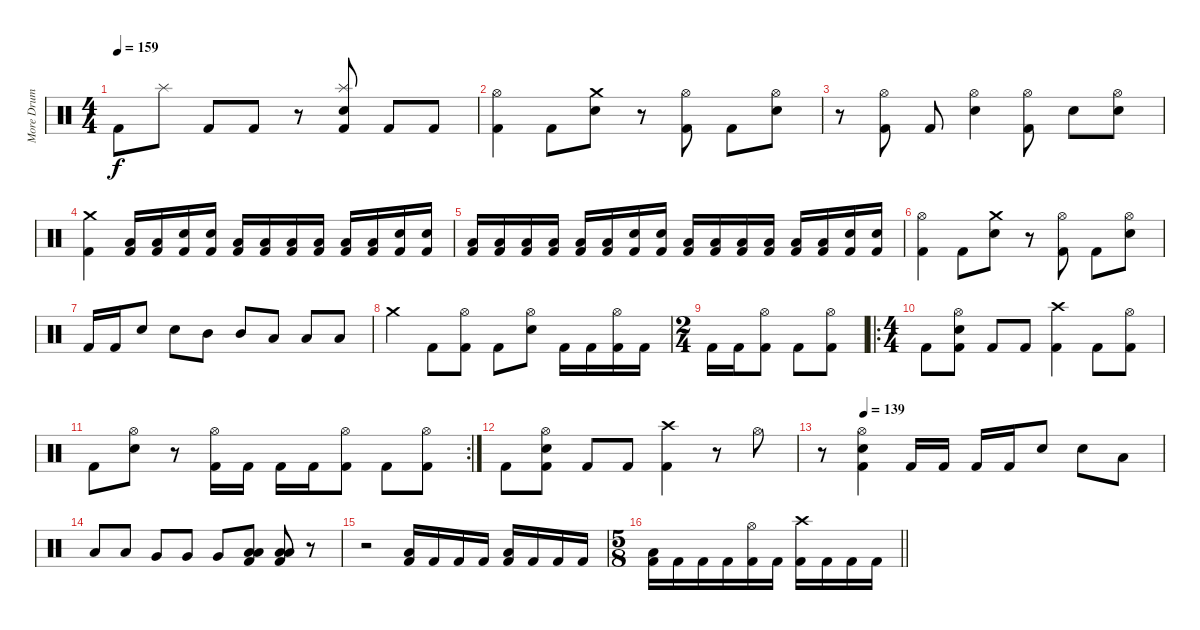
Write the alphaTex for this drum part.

\track ("More Drum Sound" "More Drum ") {instrument percussion}
\staff {score}
\articulation defaults
\ts (4 4)
\tempo 159
\clef neutral
\ks c "Kick (hit) 2".8{dy f} "Splash (hit)".8 "Kick (hit) 2".8 "Kick (hit) 2".8
r.8 ("Splash (hit)" "Snare (hit) 2" "Kick (hit) 2").8 "Kick (hit) 2".8 "Kick (hit) 2".8 |
("Hi-Hat (open)" "Kick (hit) 2").4 "Kick (hit) 2".8 ("Crash medium (hit)" "Snare (hit) 2").8 r.8 ("Hi-Hat (open)" "Kick (hit) 2").8 "Kick (hit) 2".8 ("Hi-Hat (open)" "Snare (hit) 2").8 |
r.8 ("Hi-Hat (open)" "Kick (hit) 2").8 "Kick (hit) 2".8 ("Hi-Hat (open)" "Snare (hit) 2").4 ("Hi-Hat (open)" "Kick (hit) 2").8 "Snare (hit) 2".8 ("Hi-Hat (open)" "Snare (hit) 2").8 |
("Crash medium (hit)" "Kick (hit) 2").4 ("Low Tom (hit)" "Kick (hit) 2").16 ("Low Tom (hit)" "Kick (hit) 2").16 ("Snare (hit) 2" "Kick (hit) 2").16 ("Snare (hit) 2" "Kick (hit) 2").16 ("Low Tom (hit)" "Kick (hit) 2").16 ("Low Tom (hit)" "Kick (hit) 2").16 ("Low Tom (hit)" "Kick (hit) 2").16 ("Low Tom (hit)" "Kick (hit) 2").16 ("Low Tom (hit)" "Kick (hit) 2").16 ("Low Tom (hit)" "Kick (hit) 2").16 ("Snare (hit) 2" "Kick (hit) 2").16 ("Snare (hit) 2" "Kick (hit) 2").16 |
("Low Tom (hit)" "Kick (hit) 2").16 ("Low Tom (hit)" "Kick (hit) 2").16 ("Low Tom (hit)" "Kick (hit) 2").16 ("Low Tom (hit)" "Kick (hit) 2").16 ("Low Tom (hit)" "Kick (hit) 2").16 ("Low Tom (hit)" "Kick (hit) 2").16 ("Snare (hit) 2" "Kick (hit) 2").16 ("Snare (hit) 2" "Kick (hit) 2").16 ("Low Tom (hit)" "Kick (hit) 2").16 ("Low Tom (hit)" "Kick (hit) 2").16 ("Low Tom (hit)" "Kick (hit) 2").16 ("Low Tom (hit)" "Kick (hit) 2").16 ("Low Tom (hit)" "Kick (hit) 2").16 ("Low Tom (hit)" "Kick (hit) 2").16 ("Snare (hit) 2" "Kick (hit) 2").16 ("Snare (hit) 2" "Kick (hit) 2").16 |
("Hi-Hat (open)" "Kick (hit) 2").4 "Kick (hit) 2".8 ("Crash medium (hit)" "Snare (hit) 2").8 r.8 ("Hi-Hat (open)" "Kick (hit) 2").8 "Kick (hit) 2".8 ("Hi-Hat (open)" "Snare (hit) 2").8 |
"Kick (hit) 2".16 "Kick (hit) 2".16 "Snare (hit) 2".8 "Snare (hit) 2".8 "Mid Tom (hit)".8 "Mid Tom (hit)".8 "Low Tom (hit)".8 "Low Tom (hit)".8 "Low Floor Tom (hit)".8 |
"Crash medium (hit)".4 "Kick (hit) 2".8 ("Hi-Hat (open)" "Kick (hit) 2").8 "Kick (hit) 2".8 ("Hi-Hat (open)" "Snare (hit) 2").8 "Kick (hit) 2".16 "Kick (hit) 2".16 ("Hi-Hat (open)" "Kick (hit) 2").16 "Kick (hit) 2".16 |
\ts (2 4)
"Kick (hit) 2".16 "Kick (hit) 2".16 ("Hi-Hat (open)" "Kick (hit) 2").8 "Kick (hit) 2".8 ("Hi-Hat (open)" "Kick (hit) 2").8 |
\ro
\ts (4 4)
"Kick (hit) 2".8 ("Hi-Hat (open)" "Snare (hit) 2" "Kick (hit) 2").8 "Kick (hit) 2".8 "Kick (hit) 2".8 ("Crash high (hit)" "Kick (hit) 2").4 "Kick (hit) 2".8 ("Hi-Hat (open)" "Kick (hit) 2").8 |
\rc 2 "Kick (hit) 2".8
("Hi-Hat (open)" "Snare (hit) 2").8 r.8 ("Hi-Hat (open)" "Kick (hit) 2").16 "Kick (hit) 2".16 "Kick (hit) 2".16 "Kick (hit) 2".16 ("Hi-Hat (open)" "Kick (hit) 2").8 "Kick (hit) 2".8 ("Hi-Hat (open)" "Kick (hit) 2").8 |
"Kick (hit) 2".8 ("Hi-Hat (open)" "Snare (hit) 2" "Kick (hit) 2").8 "Kick (hit) 2".8 "Kick (hit) 2".8 ("Crash high (hit)" "Kick (hit) 2").4 r.8 "Hi-Hat (open)".8 |
\tempo (139 0.125)
r.8 ("Hi-Hat (open)" "Snare (hit) 2" "Kick (hit) 2").4 "Kick (hit) 2".16 "Kick (hit) 2".16 "Kick (hit) 2".16 "Kick (hit) 2".16 "Snare (hit) 2".8 "Snare (hit) 2".8 "Low Tom (hit)".8 |
"Low Tom (hit)".8 "Low Tom (hit)".8 "Very Low Tom (hit)".8 "Very Low Tom (hit)".8 "Very Low Tom (hit)".8 ("Low Floor Tom (hit)" "Low Floor Tom (hit)" "Kick (hit) 2").8 ("Low Floor Tom (hit)" "Low Floor Tom (hit)" "Kick (hit) 2").8 r.8 |
r.2 ("Low Floor Tom (hit)" "Kick (hit) 2").16 "Kick (hit) 2".16 "Kick (hit) 2".16 "Kick (hit) 2".16 ("Low Floor Tom (hit)" "Kick (hit) 2").16 "Kick (hit) 2".16 "Kick (hit) 2".16 "Kick (hit) 2".16 |
\ts (5 8)
\barLineRight lightlight
("Low Floor Tom (hit)" "Kick (hit) 2").16 "Kick (hit) 2".16 "Kick (hit) 2".16 "Kick (hit) 2".16 ("Hi-Hat (open)" "Kick (hit) 2").16 "Kick (hit) 2".16 ("Crash high (hit)" "Kick (hit) 2").16 "Kick (hit) 2".16 "Kick (hit) 2".16 "Kick (hit) 2".16
